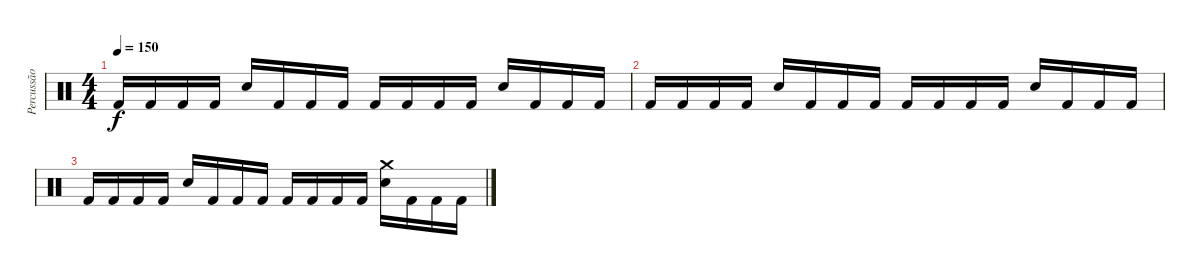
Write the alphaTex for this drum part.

\track ("Percussão" "Percussão") {instrument percussion}
\staff {score}
\articulation defaults
\ts (4 4)
\tempo 150
\clef neutral
\ks c "Kick (hit) 2".16{dy f} "Kick (hit) 2".16 "Kick (hit) 2".16 "Kick (hit) 2".16 "Electric Snare (hit)".16 "Kick (hit) 2".16 "Kick (hit) 2".16 "Kick (hit) 2".16 "Kick (hit) 2".16 "Kick (hit) 2".16 "Kick (hit) 2".16 "Kick (hit) 2".16 "Electric Snare (hit)".16 "Kick (hit) 2".16 "Kick (hit) 2".16 "Kick (hit) 2".16
|
"Kick (hit) 2".16 "Kick (hit) 2".16 "Kick (hit) 2".16 "Kick (hit) 2".16 "Electric Snare (hit)".16 "Kick (hit) 2".16 "Kick (hit) 2".16 "Kick (hit) 2".16 "Kick (hit) 2".16 "Kick (hit) 2".16 "Kick (hit) 2".16 "Kick (hit) 2".16 "Electric Snare (hit)".16 "Kick (hit) 2".16 "Kick (hit) 2".16 "Kick (hit) 2".16 |
"Kick (hit) 2".16 "Kick (hit) 2".16 "Kick (hit) 2".16 "Kick (hit) 2".16 "Electric Snare (hit)".16 "Kick (hit) 2".16 "Kick (hit) 2".16 "Kick (hit) 2".16 "Kick (hit) 2".16 "Kick (hit) 2".16 "Kick (hit) 2".16 "Kick (hit) 2".16 ("Crash medium (hit)" "Electric Snare (hit)").16 "Kick (hit) 2".16 "Kick (hit) 2".16 "Kick (hit) 2".16
